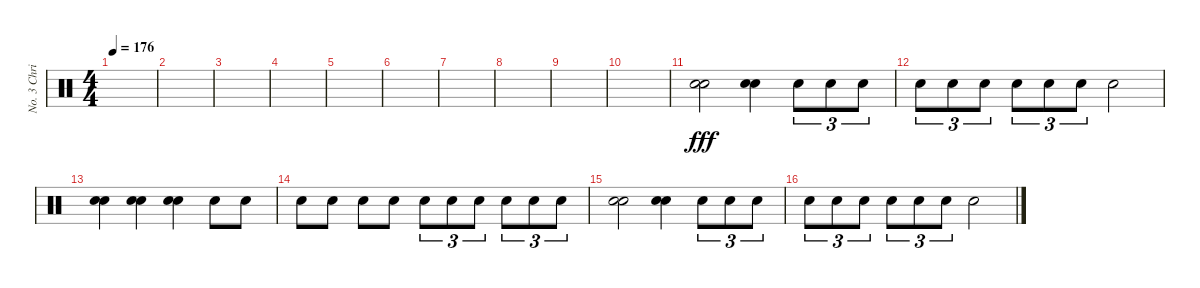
\track ("No. 3 Chris" "No. 3 Chri") {instrument percussion}
\staff {score}
\articulation defaults
\ts (4 4)
\tempo 176
\clef neutral
\ks c
|
|
|
|
|
|
|
|
|
|
("Electric Snare (hit)" "Electric Snare (hit)").2{dy fff} ("Electric Snare (hit)" "Electric Snare (hit)").4 "Electric Snare (hit)".8{tu (3 2)} "Electric Snare (hit)".8{tu (3 2)} "Electric Snare (hit)".8{tu (3 2)} |
"Electric Snare (hit)".8{tu (3 2)} "Electric Snare (hit)".8{tu (3 2)} "Electric Snare (hit)".8{tu (3 2)} "Electric Snare (hit)".8{tu (3 2)} "Electric Snare (hit)".8{tu (3 2)} "Electric Snare (hit)".8{tu (3 2)} "Electric Snare (hit)".2 |
("Electric Snare (hit)" "Electric Snare (hit)").4 ("Electric Snare (hit)" "Electric Snare (hit)").4 ("Electric Snare (hit)" "Electric Snare (hit)").4 "Electric Snare (hit)".8 "Electric Snare (hit)".8 |
"Electric Snare (hit)".8 "Electric Snare (hit)".8 "Electric Snare (hit)".8 "Electric Snare (hit)".8 "Electric Snare (hit)".8{tu (3 2)} "Electric Snare (hit)".8{tu (3 2)} "Electric Snare (hit)".8{tu (3 2)} "Electric Snare (hit)".8{tu (3 2)} "Electric Snare (hit)".8{tu (3 2)} "Electric Snare (hit)".8{tu (3 2)} |
("Electric Snare (hit)" "Electric Snare (hit)").2 ("Electric Snare (hit)" "Electric Snare (hit)").4 "Electric Snare (hit)".8{tu (3 2)} "Electric Snare (hit)".8{tu (3 2)} "Electric Snare (hit)".8{tu (3 2)} |
"Electric Snare (hit)".8{tu (3 2)} "Electric Snare (hit)".8{tu (3 2)} "Electric Snare (hit)".8{tu (3 2)} "Electric Snare (hit)".8{tu (3 2)} "Electric Snare (hit)".8{tu (3 2)} "Electric Snare (hit)".8{tu (3 2)} "Electric Snare (hit)".2
